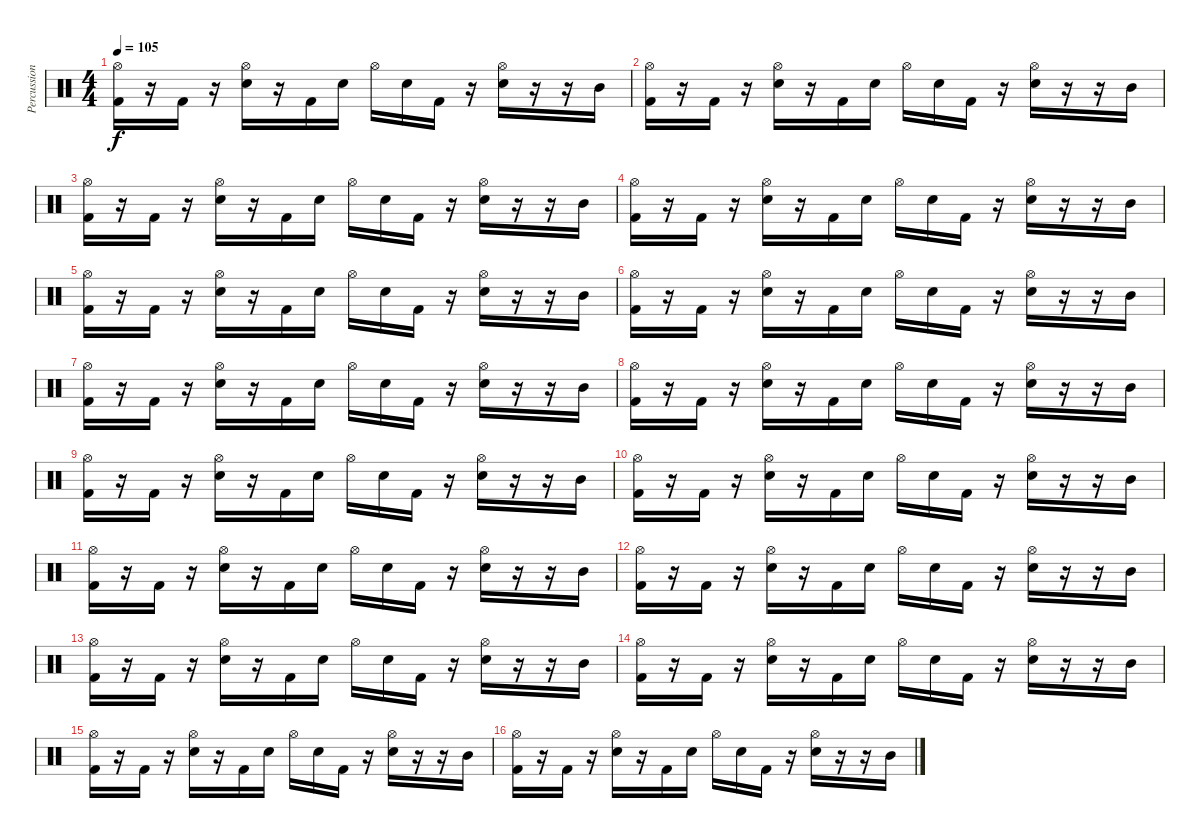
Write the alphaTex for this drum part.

\track ("Percussion" "Percussion") {instrument percussion}
\staff {score}
\articulation defaults
\ts (4 4)
\tempo 105
\clef neutral
\ks c
("Hi-Hat (open)" "Kick (hit) 2").16{dy f} r.16 "Kick (hit) 2".16 r.16 ("Hi-Hat (open)" "Snare (hit) 2").16 r.16 "Kick (hit) 2".16 "Snare (hit) 2".16 "Hi-Hat (open)".16 "Snare (hit) 2".16 "Kick (hit) 2".16 r.16 ("Hi-Hat (open)" "Snare (hit) 2").16 r.16 r.16 "Mid Tom (hit)".16 |
("Hi-Hat (open)" "Kick (hit) 2").16 r.16 "Kick (hit) 2".16 r.16 ("Hi-Hat (open)" "Snare (hit) 2").16 r.16 "Kick (hit) 2".16 "Snare (hit) 2".16 "Hi-Hat (open)".16 "Snare (hit) 2".16 "Kick (hit) 2".16 r.16 ("Hi-Hat (open)" "Snare (hit) 2").16 r.16 r.16 "Mid Tom (hit)".16 |
("Hi-Hat (open)" "Kick (hit) 2").16 r.16 "Kick (hit) 2".16 r.16 ("Hi-Hat (open)" "Snare (hit) 2").16 r.16 "Kick (hit) 2".16 "Snare (hit) 2".16 "Hi-Hat (open)".16 "Snare (hit) 2".16 "Kick (hit) 2".16 r.16 ("Hi-Hat (open)" "Snare (hit) 2").16 r.16 r.16 "Mid Tom (hit)".16 |
("Hi-Hat (open)" "Kick (hit) 2").16 r.16 "Kick (hit) 2".16 r.16 ("Hi-Hat (open)" "Snare (hit) 2").16 r.16 "Kick (hit) 2".16 "Snare (hit) 2".16 "Hi-Hat (open)".16 "Snare (hit) 2".16 "Kick (hit) 2".16 r.16 ("Hi-Hat (open)" "Snare (hit) 2").16 r.16 r.16 "Mid Tom (hit)".16 |
("Hi-Hat (open)" "Kick (hit) 2").16 r.16 "Kick (hit) 2".16 r.16 ("Hi-Hat (open)" "Snare (hit) 2").16 r.16 "Kick (hit) 2".16 "Snare (hit) 2".16 "Hi-Hat (open)".16 "Snare (hit) 2".16 "Kick (hit) 2".16 r.16 ("Hi-Hat (open)" "Snare (hit) 2").16 r.16 r.16 "Mid Tom (hit)".16 |
("Hi-Hat (open)" "Kick (hit) 2").16 r.16 "Kick (hit) 2".16 r.16 ("Hi-Hat (open)" "Snare (hit) 2").16 r.16 "Kick (hit) 2".16 "Snare (hit) 2".16 "Hi-Hat (open)".16 "Snare (hit) 2".16 "Kick (hit) 2".16 r.16 ("Hi-Hat (open)" "Snare (hit) 2").16 r.16 r.16 "Mid Tom (hit)".16 |
("Hi-Hat (open)" "Kick (hit) 2").16 r.16 "Kick (hit) 2".16 r.16 ("Hi-Hat (open)" "Snare (hit) 2").16 r.16 "Kick (hit) 2".16 "Snare (hit) 2".16 "Hi-Hat (open)".16 "Snare (hit) 2".16 "Kick (hit) 2".16 r.16 ("Hi-Hat (open)" "Snare (hit) 2").16 r.16 r.16 "Mid Tom (hit)".16 |
("Hi-Hat (open)" "Kick (hit) 2").16 r.16 "Kick (hit) 2".16 r.16 ("Hi-Hat (open)" "Snare (hit) 2").16 r.16 "Kick (hit) 2".16 "Snare (hit) 2".16 "Hi-Hat (open)".16 "Snare (hit) 2".16 "Kick (hit) 2".16 r.16 ("Hi-Hat (open)" "Snare (hit) 2").16 r.16 r.16 "Mid Tom (hit)".16 |
("Hi-Hat (open)" "Kick (hit) 2").16 r.16 "Kick (hit) 2".16 r.16 ("Hi-Hat (open)" "Snare (hit) 2").16 r.16 "Kick (hit) 2".16 "Snare (hit) 2".16 "Hi-Hat (open)".16 "Snare (hit) 2".16 "Kick (hit) 2".16 r.16 ("Hi-Hat (open)" "Snare (hit) 2").16 r.16 r.16 "Mid Tom (hit)".16 |
("Hi-Hat (open)" "Kick (hit) 2").16 r.16 "Kick (hit) 2".16 r.16 ("Hi-Hat (open)" "Snare (hit) 2").16 r.16 "Kick (hit) 2".16 "Snare (hit) 2".16 "Hi-Hat (open)".16 "Snare (hit) 2".16 "Kick (hit) 2".16 r.16 ("Hi-Hat (open)" "Snare (hit) 2").16 r.16 r.16 "Mid Tom (hit)".16 |
("Hi-Hat (open)" "Kick (hit) 2").16 r.16 "Kick (hit) 2".16 r.16 ("Hi-Hat (open)" "Snare (hit) 2").16 r.16 "Kick (hit) 2".16 "Snare (hit) 2".16 "Hi-Hat (open)".16 "Snare (hit) 2".16 "Kick (hit) 2".16 r.16 ("Hi-Hat (open)" "Snare (hit) 2").16 r.16 r.16 "Mid Tom (hit)".16 |
("Hi-Hat (open)" "Kick (hit) 2").16 r.16 "Kick (hit) 2".16 r.16 ("Hi-Hat (open)" "Snare (hit) 2").16 r.16 "Kick (hit) 2".16 "Snare (hit) 2".16 "Hi-Hat (open)".16 "Snare (hit) 2".16 "Kick (hit) 2".16 r.16 ("Hi-Hat (open)" "Snare (hit) 2").16 r.16 r.16 "Mid Tom (hit)".16 |
("Hi-Hat (open)" "Kick (hit) 2").16 r.16 "Kick (hit) 2".16 r.16 ("Hi-Hat (open)" "Snare (hit) 2").16 r.16 "Kick (hit) 2".16 "Snare (hit) 2".16 "Hi-Hat (open)".16 "Snare (hit) 2".16 "Kick (hit) 2".16 r.16 ("Hi-Hat (open)" "Snare (hit) 2").16 r.16 r.16 "Mid Tom (hit)".16 |
("Hi-Hat (open)" "Kick (hit) 2").16 r.16 "Kick (hit) 2".16 r.16 ("Hi-Hat (open)" "Snare (hit) 2").16 r.16 "Kick (hit) 2".16 "Snare (hit) 2".16 "Hi-Hat (open)".16 "Snare (hit) 2".16 "Kick (hit) 2".16 r.16 ("Hi-Hat (open)" "Snare (hit) 2").16 r.16 r.16 "Mid Tom (hit)".16 |
("Hi-Hat (open)" "Kick (hit) 2").16 r.16 "Kick (hit) 2".16 r.16 ("Hi-Hat (open)" "Snare (hit) 2").16 r.16 "Kick (hit) 2".16 "Snare (hit) 2".16 "Hi-Hat (open)".16 "Snare (hit) 2".16 "Kick (hit) 2".16 r.16 ("Hi-Hat (open)" "Snare (hit) 2").16 r.16 r.16 "Mid Tom (hit)".16 |
("Hi-Hat (open)" "Kick (hit) 2").16 r.16 "Kick (hit) 2".16 r.16 ("Hi-Hat (open)" "Snare (hit) 2").16 r.16 "Kick (hit) 2".16 "Snare (hit) 2".16 "Hi-Hat (open)".16 "Snare (hit) 2".16 "Kick (hit) 2".16 r.16 ("Hi-Hat (open)" "Snare (hit) 2").16 r.16 r.16 "Mid Tom (hit)".16
